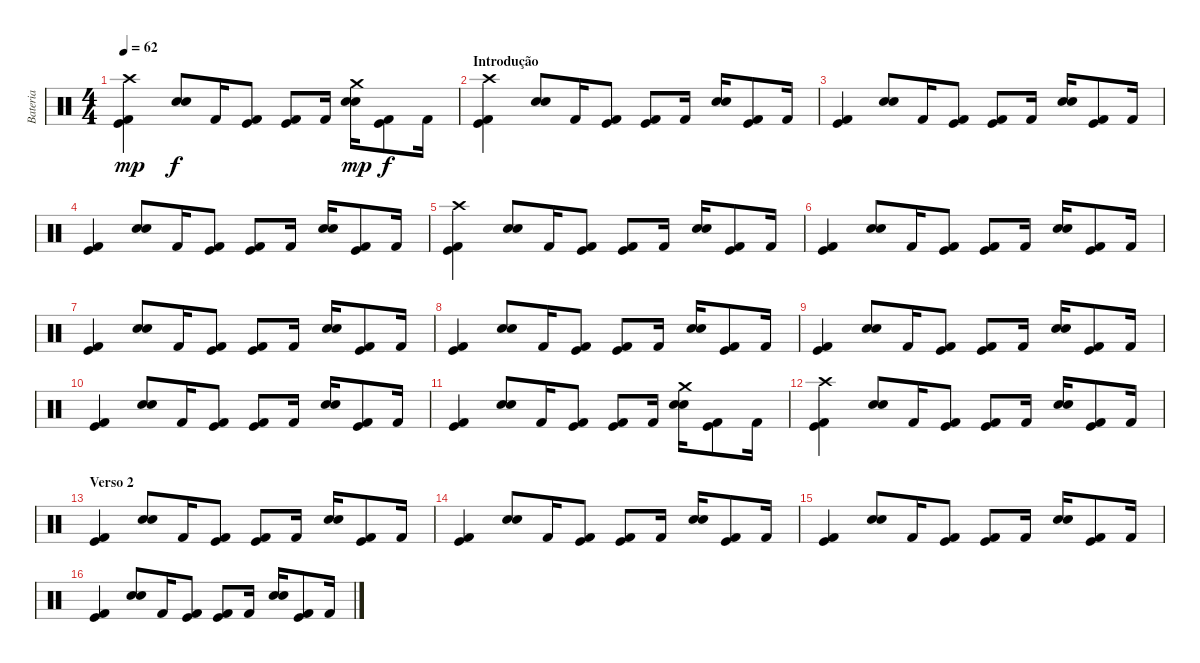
\track ("Bateria" "Bateria") {instrument percussion}
\staff {score}
\articulation defaults
\ts (4 4)
\tempo 62
\clef neutral
\ks c
("Crash high (hit)" "Kick (hit)" "Kick (hit) 2").4{dy mp} ("Snare (hit) 2" "Electric Snare (hit)").8{dy f} "Kick (hit) 2".16 ("Kick (hit)" "Kick (hit) 2").8 ("Kick (hit)" "Kick (hit) 2").8 "Kick (hit) 2".16 ("Crash medium (hit)" "Snare (hit) 2" "Electric Snare (hit)").16{dy mp} ("Kick (hit)" "Kick (hit) 2").8{dy f} "Kick (hit) 2".16 |
\section ("" "Introdução")
("Crash high (hit)" "Kick (hit)" "Kick (hit) 2").4 ("Snare (hit) 2" "Electric Snare (hit)").8 "Kick (hit) 2".16 ("Kick (hit)" "Kick (hit) 2").8 ("Kick (hit)" "Kick (hit) 2").8 "Kick (hit) 2".16 ("Snare (hit) 2" "Electric Snare (hit)").16 ("Kick (hit)" "Kick (hit) 2").8 "Kick (hit) 2".16 |
("Kick (hit)" "Kick (hit) 2").4 ("Snare (hit) 2" "Electric Snare (hit)").8 "Kick (hit) 2".16 ("Kick (hit)" "Kick (hit) 2").8 ("Kick (hit)" "Kick (hit) 2").8 "Kick (hit) 2".16 ("Snare (hit) 2" "Electric Snare (hit)").16 ("Kick (hit)" "Kick (hit) 2").8 "Kick (hit) 2".16 |
("Kick (hit)" "Kick (hit) 2").4 ("Snare (hit) 2" "Electric Snare (hit)").8 "Kick (hit) 2".16 ("Kick (hit)" "Kick (hit) 2").8 ("Kick (hit)" "Kick (hit) 2").8 "Kick (hit) 2".16 ("Snare (hit) 2" "Electric Snare (hit)").16 ("Kick (hit)" "Kick (hit) 2").8 "Kick (hit) 2".16 |
("Crash high (hit)" "Kick (hit)" "Kick (hit) 2").4 ("Snare (hit) 2" "Electric Snare (hit)").8 "Kick (hit) 2".16 ("Kick (hit)" "Kick (hit) 2").8 ("Kick (hit)" "Kick (hit) 2").8 "Kick (hit) 2".16 ("Snare (hit) 2" "Electric Snare (hit)").16 ("Kick (hit)" "Kick (hit) 2").8 "Kick (hit) 2".16 |
("Kick (hit)" "Kick (hit) 2").4 ("Snare (hit) 2" "Electric Snare (hit)").8 "Kick (hit) 2".16 ("Kick (hit)" "Kick (hit) 2").8 ("Kick (hit)" "Kick (hit) 2").8 "Kick (hit) 2".16 ("Snare (hit) 2" "Electric Snare (hit)").16 ("Kick (hit)" "Kick (hit) 2").8 "Kick (hit) 2".16 |
("Kick (hit)" "Kick (hit) 2").4 ("Snare (hit) 2" "Electric Snare (hit)").8 "Kick (hit) 2".16 ("Kick (hit)" "Kick (hit) 2").8 ("Kick (hit)" "Kick (hit) 2").8 "Kick (hit) 2".16 ("Snare (hit) 2" "Electric Snare (hit)").16 ("Kick (hit)" "Kick (hit) 2").8 "Kick (hit) 2".16 |
("Kick (hit)" "Kick (hit) 2").4 ("Snare (hit) 2" "Electric Snare (hit)").8 "Kick (hit) 2".16 ("Kick (hit)" "Kick (hit) 2").8 ("Kick (hit)" "Kick (hit) 2").8 "Kick (hit) 2".16 ("Snare (hit) 2" "Electric Snare (hit)").16 ("Kick (hit)" "Kick (hit) 2").8 "Kick (hit) 2".16 |
("Kick (hit)" "Kick (hit) 2").4 ("Snare (hit) 2" "Electric Snare (hit)").8 "Kick (hit) 2".16 ("Kick (hit)" "Kick (hit) 2").8 ("Kick (hit)" "Kick (hit) 2").8 "Kick (hit) 2".16 ("Snare (hit) 2" "Electric Snare (hit)").16 ("Kick (hit)" "Kick (hit) 2").8 "Kick (hit) 2".16 |
("Kick (hit)" "Kick (hit) 2").4 ("Snare (hit) 2" "Electric Snare (hit)").8 "Kick (hit) 2".16 ("Kick (hit)" "Kick (hit) 2").8 ("Kick (hit)" "Kick (hit) 2").8 "Kick (hit) 2".16 ("Snare (hit) 2" "Electric Snare (hit)").16 ("Kick (hit)" "Kick (hit) 2").8 "Kick (hit) 2".16 |
("Kick (hit)" "Kick (hit) 2").4 ("Snare (hit) 2" "Electric Snare (hit)").8 "Kick (hit) 2".16 ("Kick (hit)" "Kick (hit) 2").8 ("Kick (hit)" "Kick (hit) 2").8 "Kick (hit) 2".16 ("Crash medium (hit)" "Snare (hit) 2" "Electric Snare (hit)").16 ("Kick (hit)" "Kick (hit) 2").8 "Kick (hit) 2".16 |
("Crash high (hit)" "Kick (hit)" "Kick (hit) 2").4 ("Snare (hit) 2" "Electric Snare (hit)").8 "Kick (hit) 2".16 ("Kick (hit)" "Kick (hit) 2").8 ("Kick (hit)" "Kick (hit) 2").8 "Kick (hit) 2".16 ("Snare (hit) 2" "Electric Snare (hit)").16 ("Kick (hit)" "Kick (hit) 2").8 "Kick (hit) 2".16 |
\section ("" "Verso 2")
("Kick (hit)" "Kick (hit) 2").4 ("Snare (hit) 2" "Electric Snare (hit)").8 "Kick (hit) 2".16 ("Kick (hit)" "Kick (hit) 2").8 ("Kick (hit)" "Kick (hit) 2").8 "Kick (hit) 2".16 ("Snare (hit) 2" "Electric Snare (hit)").16 ("Kick (hit)" "Kick (hit) 2").8 "Kick (hit) 2".16 |
("Kick (hit)" "Kick (hit) 2").4 ("Snare (hit) 2" "Electric Snare (hit)").8 "Kick (hit) 2".16 ("Kick (hit)" "Kick (hit) 2").8 ("Kick (hit)" "Kick (hit) 2").8 "Kick (hit) 2".16 ("Snare (hit) 2" "Electric Snare (hit)").16 ("Kick (hit)" "Kick (hit) 2").8 "Kick (hit) 2".16 |
("Kick (hit)" "Kick (hit) 2").4 ("Snare (hit) 2" "Electric Snare (hit)").8 "Kick (hit) 2".16 ("Kick (hit)" "Kick (hit) 2").8 ("Kick (hit)" "Kick (hit) 2").8 "Kick (hit) 2".16 ("Snare (hit) 2" "Electric Snare (hit)").16 ("Kick (hit)" "Kick (hit) 2").8 "Kick (hit) 2".16 |
("Kick (hit)" "Kick (hit) 2").4 ("Snare (hit) 2" "Electric Snare (hit)").8 "Kick (hit) 2".16 ("Kick (hit)" "Kick (hit) 2").8 ("Kick (hit)" "Kick (hit) 2").8 "Kick (hit) 2".16 ("Snare (hit) 2" "Electric Snare (hit)").16 ("Kick (hit)" "Kick (hit) 2").8 "Kick (hit) 2".16
